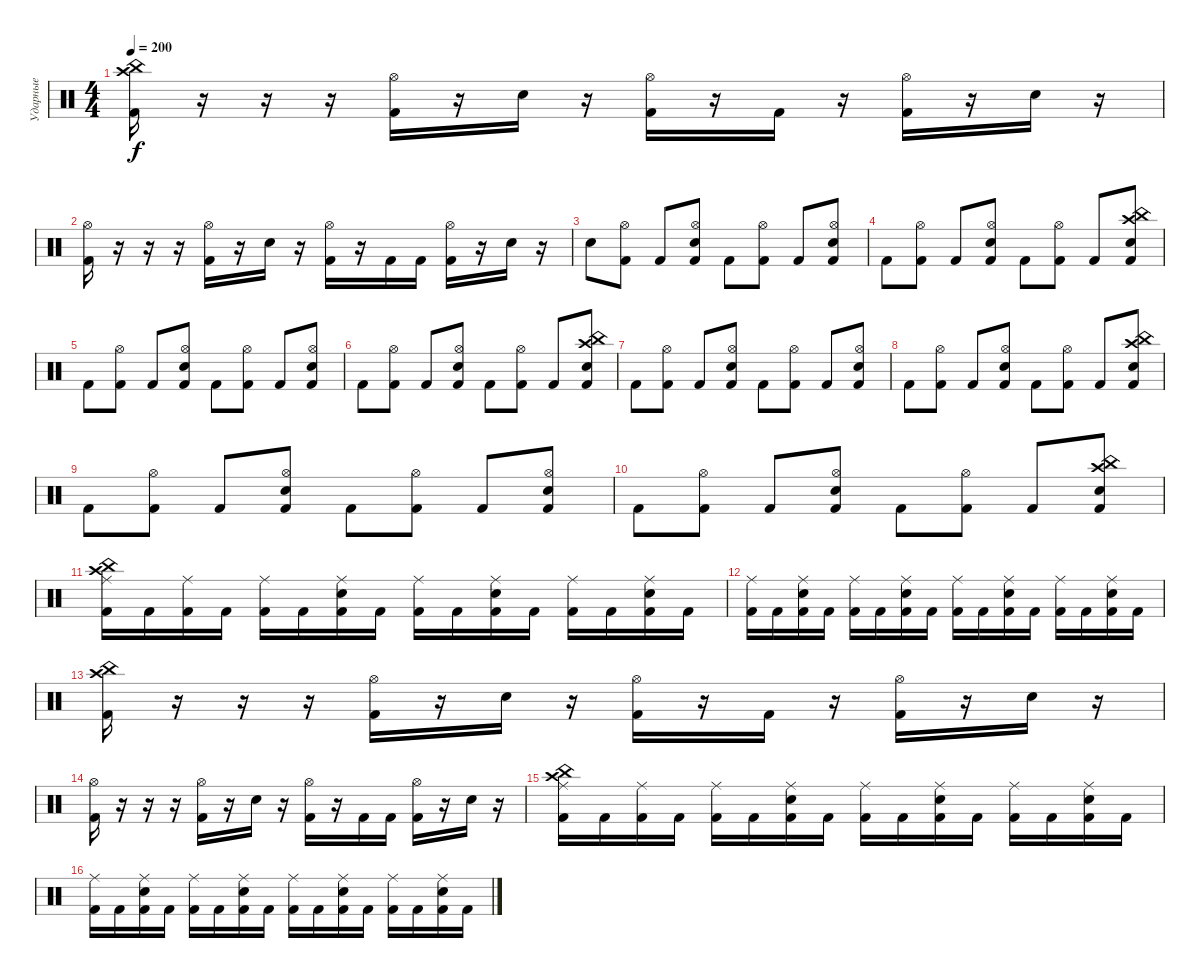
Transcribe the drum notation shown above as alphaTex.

\track ("Ударные" "Ударные") {instrument percussion}
\staff {score}
\articulation defaults
\ts (4 4)
\tempo 200
\clef neutral
\ks c
("Kick (hit) 2" "China (hit)" "Crash high (hit)").16{dy f} r.16 r.16 r.16 ("Kick (hit) 2" "Hi-Hat (open)").16 r.16 "Electric Snare (hit)".16 r.16 ("Kick (hit) 2" "Hi-Hat (open)").16 r.16 "Kick (hit) 2".16 r.16 ("Kick (hit) 2" "Hi-Hat (open)").16 r.16 "Electric Snare (hit)".16 r.16 |
("Kick (hit) 2" "Hi-Hat (open)").16 r.16 r.16 r.16 ("Kick (hit) 2" "Hi-Hat (open)").16 r.16 "Electric Snare (hit)".16 r.16 ("Kick (hit) 2" "Hi-Hat (open)").16 r.16 "Kick (hit) 2".16 "Kick (hit) 2".16 ("Kick (hit) 2" "Hi-Hat (open)").16 r.16 "Electric Snare (hit)".16 r.16 |
"Electric Snare (hit)".8 ("Kick (hit) 2" "Hi-Hat (open)").8 "Kick (hit) 2".8 ("Kick (hit) 2" "Electric Snare (hit)" "Hi-Hat (open)").8 "Kick (hit) 2".8 ("Kick (hit) 2" "Hi-Hat (open)").8 "Kick (hit) 2".8 ("Kick (hit) 2" "Electric Snare (hit)" "Hi-Hat (open)").8 |
"Kick (hit) 2".8 ("Kick (hit) 2" "Hi-Hat (open)").8 "Kick (hit) 2".8 ("Kick (hit) 2" "Electric Snare (hit)" "Hi-Hat (open)").8 "Kick (hit) 2".8 ("Kick (hit) 2" "Hi-Hat (open)").8 "Kick (hit) 2".8 ("Kick (hit) 2" "Electric Snare (hit)" "Crash high (hit)" "China (hit)").8 |
"Kick (hit) 2".8 ("Kick (hit) 2" "Hi-Hat (open)").8 "Kick (hit) 2".8 ("Kick (hit) 2" "Electric Snare (hit)" "Hi-Hat (open)").8 "Kick (hit) 2".8 ("Kick (hit) 2" "Hi-Hat (open)").8 "Kick (hit) 2".8 ("Kick (hit) 2" "Electric Snare (hit)" "Hi-Hat (open)").8 |
"Kick (hit) 2".8 ("Kick (hit) 2" "Hi-Hat (open)").8 "Kick (hit) 2".8 ("Kick (hit) 2" "Electric Snare (hit)" "Hi-Hat (open)").8 "Kick (hit) 2".8 ("Kick (hit) 2" "Hi-Hat (open)").8 "Kick (hit) 2".8 ("Kick (hit) 2" "Electric Snare (hit)" "Crash high (hit)" "China (hit)").8 |
"Kick (hit) 2".8 ("Kick (hit) 2" "Hi-Hat (open)").8 "Kick (hit) 2".8 ("Kick (hit) 2" "Electric Snare (hit)" "Hi-Hat (open)").8 "Kick (hit) 2".8 ("Kick (hit) 2" "Hi-Hat (open)").8 "Kick (hit) 2".8 ("Kick (hit) 2" "Electric Snare (hit)" "Hi-Hat (open)").8 |
"Kick (hit) 2".8 ("Kick (hit) 2" "Hi-Hat (open)").8 "Kick (hit) 2".8 ("Kick (hit) 2" "Electric Snare (hit)" "Hi-Hat (open)").8 "Kick (hit) 2".8 ("Kick (hit) 2" "Hi-Hat (open)").8 "Kick (hit) 2".8 ("Kick (hit) 2" "Electric Snare (hit)" "Crash high (hit)" "China (hit)").8 |
"Kick (hit) 2".8 ("Kick (hit) 2" "Hi-Hat (open)").8 "Kick (hit) 2".8 ("Kick (hit) 2" "Electric Snare (hit)" "Hi-Hat (open)").8 "Kick (hit) 2".8 ("Kick (hit) 2" "Hi-Hat (open)").8 "Kick (hit) 2".8 ("Kick (hit) 2" "Electric Snare (hit)" "Hi-Hat (open)").8 |
"Kick (hit) 2".8 ("Kick (hit) 2" "Hi-Hat (open)").8 "Kick (hit) 2".8 ("Kick (hit) 2" "Electric Snare (hit)" "Hi-Hat (open)").8 "Kick (hit) 2".8 ("Kick (hit) 2" "Hi-Hat (open)").8 "Kick (hit) 2".8 ("Kick (hit) 2" "Electric Snare (hit)" "Crash high (hit)" "China (hit)").8 |
("Kick (hit) 2" "Ride (middle)" "Crash high (hit)" "China (hit)").16 "Kick (hit) 2".16 ("Kick (hit) 2" "Ride (middle)").16 "Kick (hit) 2".16 ("Kick (hit) 2" "Ride (middle)").16 "Kick (hit) 2".16 ("Kick (hit) 2" "Electric Snare (hit)" "Ride (middle)").16 "Kick (hit) 2".16 ("Kick (hit) 2" "Ride (middle)").16 "Kick (hit) 2".16 ("Kick (hit) 2" "Electric Snare (hit)" "Ride (middle)").16 "Kick (hit) 2".16 ("Kick (hit) 2" "Ride (middle)").16 "Kick (hit) 2".16 ("Kick (hit) 2" "Electric Snare (hit)" "Ride (middle)").16 "Kick (hit) 2".16 |
("Kick (hit) 2" "Ride (middle)").16 "Kick (hit) 2".16 ("Kick (hit) 2" "Electric Snare (hit)" "Ride (middle)").16 "Kick (hit) 2".16 ("Kick (hit) 2" "Ride (middle)").16 "Kick (hit) 2".16 ("Kick (hit) 2" "Electric Snare (hit)" "Ride (middle)").16 "Kick (hit) 2".16 ("Kick (hit) 2" "Ride (middle)").16 "Kick (hit) 2".16 ("Kick (hit) 2" "Electric Snare (hit)" "Ride (middle)").16 "Kick (hit) 2".16 ("Kick (hit) 2" "Ride (middle)").16 "Kick (hit) 2".16 ("Kick (hit) 2" "Electric Snare (hit)" "Ride (middle)").16 "Kick (hit) 2".16 |
("Kick (hit) 2" "China (hit)" "Crash high (hit)").16 r.16 r.16 r.16 ("Kick (hit) 2" "Hi-Hat (open)").16 r.16 "Electric Snare (hit)".16 r.16 ("Kick (hit) 2" "Hi-Hat (open)").16 r.16 "Kick (hit) 2".16 r.16 ("Kick (hit) 2" "Hi-Hat (open)").16 r.16 "Electric Snare (hit)".16 r.16 |
("Kick (hit) 2" "Hi-Hat (open)").16 r.16 r.16 r.16 ("Kick (hit) 2" "Hi-Hat (open)").16 r.16 "Electric Snare (hit)".16 r.16 ("Kick (hit) 2" "Hi-Hat (open)").16 r.16 "Kick (hit) 2".16 "Kick (hit) 2".16 ("Kick (hit) 2" "Hi-Hat (open)").16 r.16 "Electric Snare (hit)".16 r.16 |
("Kick (hit) 2" "Ride (middle)" "Crash high (hit)" "China (hit)").16 "Kick (hit) 2".16 ("Kick (hit) 2" "Ride (middle)").16 "Kick (hit) 2".16 ("Kick (hit) 2" "Ride (middle)").16 "Kick (hit) 2".16 ("Kick (hit) 2" "Electric Snare (hit)" "Ride (middle)").16 "Kick (hit) 2".16 ("Kick (hit) 2" "Ride (middle)").16 "Kick (hit) 2".16 ("Kick (hit) 2" "Electric Snare (hit)" "Ride (middle)").16 "Kick (hit) 2".16 ("Kick (hit) 2" "Ride (middle)").16 "Kick (hit) 2".16 ("Kick (hit) 2" "Electric Snare (hit)" "Ride (middle)").16 "Kick (hit) 2".16 |
("Kick (hit) 2" "Ride (middle)").16 "Kick (hit) 2".16 ("Kick (hit) 2" "Electric Snare (hit)" "Ride (middle)").16 "Kick (hit) 2".16 ("Kick (hit) 2" "Ride (middle)").16 "Kick (hit) 2".16 ("Kick (hit) 2" "Electric Snare (hit)" "Ride (middle)").16 "Kick (hit) 2".16 ("Kick (hit) 2" "Ride (middle)").16 "Kick (hit) 2".16 ("Kick (hit) 2" "Electric Snare (hit)" "Ride (middle)").16 "Kick (hit) 2".16 ("Kick (hit) 2" "Ride (middle)").16 "Kick (hit) 2".16 ("Kick (hit) 2" "Electric Snare (hit)" "Ride (middle)").16 "Kick (hit) 2".16
